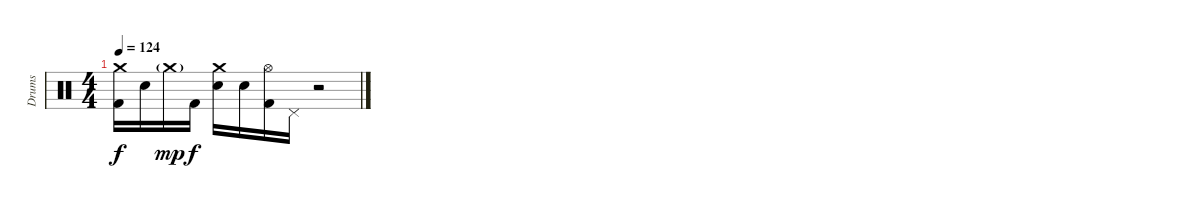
\track ("Drums" "Drums") {instrument percussion}
\staff {score}
\articulation defaults
\ts (4 4)
\section ("" "")
\tempo 124
\clef neutral
\ks c
("Crash medium (hit)" "Kick (hit) 2").16{dy f} "Electric Snare (hit)".16 "Crash medium (hit)"{g}.16{dy mp} "Kick (hit) 2".16{dy f} ("Crash medium (hit)" "Electric Snare (hit)").16 "Electric Snare (hit)".16 ("Hi-Hat (open)" "Kick (hit) 2").16 "Pedal Hi-Hat (hit)".16 r.2
